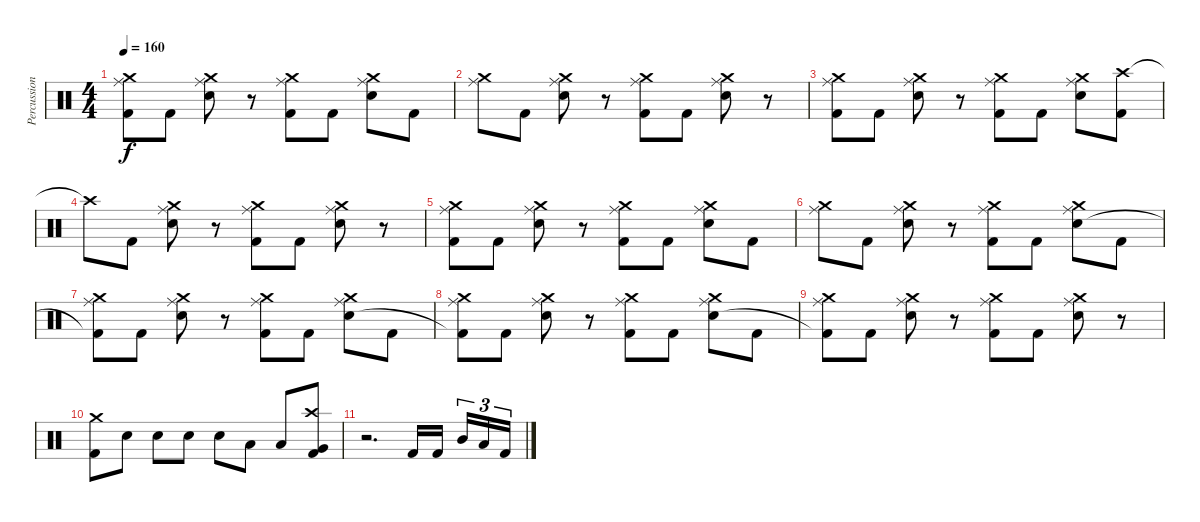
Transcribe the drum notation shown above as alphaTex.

\track ("Percussion" "Percussion") {instrument percussion}
\staff {score}
\articulation defaults
\ts (4 4)
\tempo 160
\clef neutral
\ks c
("Ride (middle)" "Crash medium (hit)" "Kick (hit) 2").8{dy f} "Kick (hit) 2".8 ("Ride (middle)" "Crash medium (hit)" "Electric Snare (hit)").8 r.8 ("Ride (middle)" "Crash medium (hit)" "Kick (hit) 2").8 "Kick (hit) 2".8 ("Ride (middle)" "Crash medium (hit)" "Electric Snare (hit)").8 "Kick (hit) 2".8 |
("Ride (middle)" "Crash medium (hit)").8 "Kick (hit) 2".8 ("Ride (middle)" "Crash medium (hit)" "Electric Snare (hit)").8 r.8 ("Ride (middle)" "Crash medium (hit)" "Kick (hit) 2").8 "Kick (hit) 2".8 ("Ride (middle)" "Crash medium (hit)" "Electric Snare (hit)").8 r.8 |
("Ride (middle)" "Crash medium (hit)" "Kick (hit) 2").8 "Kick (hit) 2".8 ("Ride (middle)" "Crash medium (hit)" "Electric Snare (hit)").8 r.8 ("Ride (middle)" "Crash medium (hit)" "Kick (hit) 2").8 "Kick (hit) 2".8 ("Ride (middle)" "Crash medium (hit)" "Electric Snare (hit)").8 ("Crash high (hit)" "Kick (hit) 2").8 |
"Crash high (hit)"{t}.8 "Kick (hit) 2".8 ("Ride (middle)" "Crash medium (hit)" "Electric Snare (hit)").8 r.8 ("Ride (middle)" "Crash medium (hit)" "Kick (hit) 2").8 "Kick (hit) 2".8 ("Ride (middle)" "Crash medium (hit)" "Electric Snare (hit)").8 r.8 |
("Ride (middle)" "Crash medium (hit)" "Kick (hit) 2").8 "Kick (hit) 2".8 ("Ride (middle)" "Crash medium (hit)" "Electric Snare (hit)").8 r.8 ("Ride (middle)" "Crash medium (hit)" "Kick (hit) 2").8 "Kick (hit) 2".8 ("Ride (middle)" "Crash medium (hit)" "Electric Snare (hit)").8 "Kick (hit) 2".8 |
("Ride (middle)" "Crash medium (hit)").8 "Kick (hit) 2".8 ("Ride (middle)" "Crash medium (hit)" "Electric Snare (hit)").8 r.8 ("Ride (middle)" "Crash medium (hit)" "Kick (hit) 2").8 "Kick (hit) 2".8 ("Ride (middle)" "Crash medium (hit)" "Electric Snare (hit)").8 "Kick (hit) 2".8 |
("Ride (middle)" "Crash medium (hit)" "Kick (hit) 2"{t}).8 "Kick (hit) 2".8 ("Ride (middle)" "Crash medium (hit)" "Electric Snare (hit)").8 r.8 ("Ride (middle)" "Crash medium (hit)" "Kick (hit) 2").8 "Kick (hit) 2".8 ("Ride (middle)" "Crash medium (hit)" "Electric Snare (hit)").8 "Kick (hit) 2".8 |
("Ride (middle)" "Crash medium (hit)" "Kick (hit) 2"{t}).8 "Kick (hit) 2".8 ("Ride (middle)" "Crash medium (hit)" "Electric Snare (hit)").8 r.8 ("Ride (middle)" "Crash medium (hit)" "Kick (hit) 2").8 "Kick (hit) 2".8 ("Ride (middle)" "Crash medium (hit)" "Electric Snare (hit)").8 "Kick (hit) 2".8 |
("Ride (middle)" "Crash medium (hit)" "Kick (hit) 2"{t}).8 "Kick (hit) 2".8 ("Ride (middle)" "Crash medium (hit)" "Electric Snare (hit)").8 r.8 ("Ride (middle)" "Crash medium (hit)" "Kick (hit) 2").8 "Kick (hit) 2".8 ("Ride (middle)" "Crash medium (hit)" "Electric Snare (hit)").8 r.8 |
("Crash medium (hit)" "Kick (hit) 2").8 "Electric Snare (hit)".8 "Electric Snare (hit)".8 "Electric Snare (hit)".8 "Electric Snare (hit)".8 "Low Tom (hit)".8 "Low Tom (hit)".8 ("Crash high (hit)" "Very Low Tom (hit)" "Kick (hit) 2").8 |
r.2{d} "Kick (hit) 2".16 "Kick (hit) 2".16 "Mid Tom (hit)".16{tu (3 2)} "Low Tom (hit)".16{tu (3 2)} "Kick (hit) 2".16{tu (3 2)}
